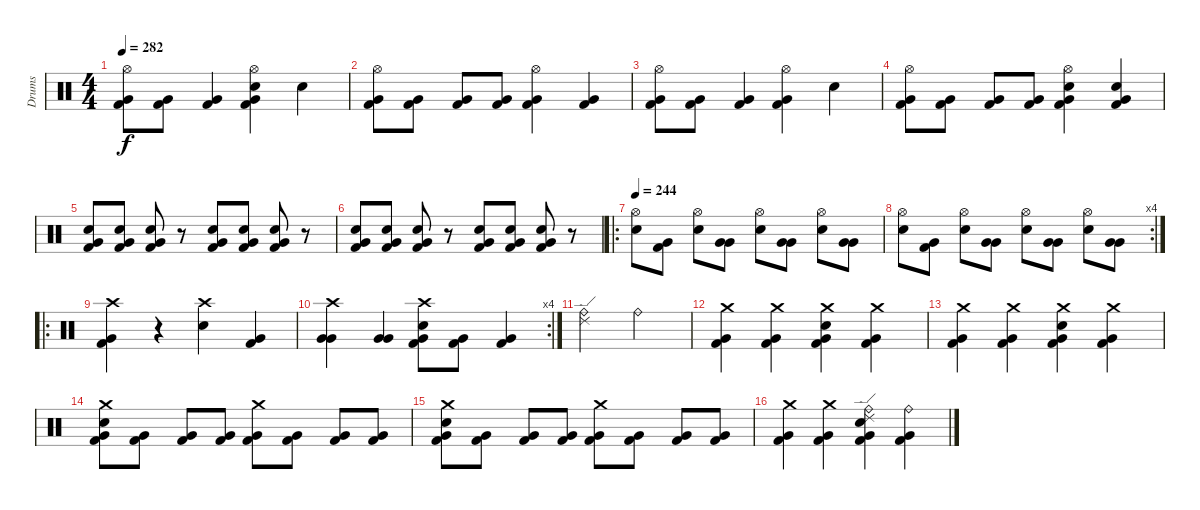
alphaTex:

\track ("Drums" "Drums") {instrument percussion}
\staff {score}
\articulation defaults
\ts (4 4)
\tempo 282
\clef neutral
\ks c
("Hi-Hat (open)" "Very Low Tom (hit)" "Kick (hit) 2").8{dy f} ("Very Low Tom (hit)" "Kick (hit) 2").8 ("Very Low Tom (hit)" "Kick (hit) 2").4 ("Hi-Hat (open)" "Snare (hit) 2" "Very Low Tom (hit)" "Kick (hit) 2").4 "Snare (hit) 2".4 |
("Hi-Hat (open)" "Very Low Tom (hit)" "Kick (hit) 2").8 ("Very Low Tom (hit)" "Kick (hit) 2").8 ("Very Low Tom (hit)" "Kick (hit) 2").8 ("Very Low Tom (hit)" "Kick (hit) 2").8 ("Hi-Hat (open)" "Very Low Tom (hit)" "Kick (hit) 2").4 ("Very Low Tom (hit)" "Kick (hit) 2").4 |
("Hi-Hat (open)" "Very Low Tom (hit)" "Kick (hit) 2").8 ("Very Low Tom (hit)" "Kick (hit) 2").8 ("Very Low Tom (hit)" "Kick (hit) 2").4 ("Hi-Hat (open)" "Very Low Tom (hit)" "Kick (hit) 2").4 "Snare (hit) 2".4 |
("Hi-Hat (open)" "Very Low Tom (hit)" "Kick (hit) 2").8 ("Very Low Tom (hit)" "Kick (hit) 2").8 ("Very Low Tom (hit)" "Kick (hit) 2").8 ("Very Low Tom (hit)" "Kick (hit) 2").8 ("Hi-Hat (open)" "Snare (hit) 2" "Very Low Tom (hit)" "Kick (hit) 2").4 ("Snare (hit) 2" "Very Low Tom (hit)" "Kick (hit) 2").4 |
("Snare (hit) 2" "Very Low Tom (hit)" "Kick (hit) 2").8 ("Snare (hit) 2" "Very Low Tom (hit)" "Kick (hit) 2").8 ("Snare (hit) 2" "Very Low Tom (hit)" "Kick (hit) 2").8 r.8 ("Snare (hit) 2" "Very Low Tom (hit)" "Kick (hit) 2").8 ("Snare (hit) 2" "Very Low Tom (hit)" "Kick (hit) 2").8 ("Snare (hit) 2" "Very Low Tom (hit)" "Kick (hit) 2").8 r.8 |
("Snare (hit) 2" "Very Low Tom (hit)" "Kick (hit) 2").8 ("Snare (hit) 2" "Very Low Tom (hit)" "Kick (hit) 2").8 ("Snare (hit) 2" "Very Low Tom (hit)" "Kick (hit) 2").8 r.8 ("Snare (hit) 2" "Very Low Tom (hit)" "Kick (hit) 2").8 ("Snare (hit) 2" "Very Low Tom (hit)" "Kick (hit) 2").8 ("Snare (hit) 2" "Very Low Tom (hit)" "Kick (hit) 2").8 r.8 |
\ro
\tempo 244
("Hi-Hat (open)" "Snare (hit) 2").8 ("Very Low Tom (hit)" "Kick (hit) 2").8 ("Hi-Hat (open)" "Snare (hit) 2").8 ("Very Low Tom (hit)" "Very Low Tom (hit)").8 ("Hi-Hat (open)" "Snare (hit) 2").8 ("Very Low Tom (hit)" "Very Low Tom (hit)").8 ("Hi-Hat (open)" "Snare (hit) 2").8 ("Very Low Tom (hit)" "Very Low Tom (hit)").8 |
\rc 4
("Hi-Hat (open)" "Snare (hit) 2").8 ("Very Low Tom (hit)" "Kick (hit) 2").8 ("Hi-Hat (open)" "Snare (hit) 2").8 ("Very Low Tom (hit)" "Very Low Tom (hit)").8 ("Hi-Hat (open)" "Snare (hit) 2").8 ("Very Low Tom (hit)" "Very Low Tom (hit)").8 ("Hi-Hat (open)" "Snare (hit) 2").8 ("Very Low Tom (hit)" "Very Low Tom (hit)").8 |
\ro
("Crash high (hit)" "Very Low Tom (hit)" "Kick (hit) 2").4 r.4 ("Crash high (hit)" "Snare (hit) 2").4 ("Very Low Tom (hit)" "Kick (hit) 2").4 |
\rc 4
("Crash high (hit)" "Very Low Tom (hit)" "Very Low Tom (hit)").4 ("Very Low Tom (hit)" "Very Low Tom (hit)").4 ("Crash high (hit)" "Snare (hit) 2" "Very Low Tom (hit)" "Kick (hit) 2").8 ("Very Low Tom (hit)" "Kick (hit) 2").8 ("Very Low Tom (hit)" "Kick (hit) 2").4 |
("Ride (bell)" "Ride (edge) 2").2 "Ride (bell)".2 |
("Crash medium (hit)" "Very Low Tom (hit)" "Kick (hit) 2").4 ("Crash medium (hit)" "Very Low Tom (hit)" "Kick (hit) 2").4 ("Crash medium (hit)" "Snare (hit) 2" "Very Low Tom (hit)" "Kick (hit) 2").4 ("Crash medium (hit)" "Very Low Tom (hit)" "Kick (hit) 2").4 |
("Crash medium (hit)" "Very Low Tom (hit)" "Kick (hit) 2").4 ("Crash medium (hit)" "Very Low Tom (hit)" "Kick (hit) 2").4 ("Crash medium (hit)" "Snare (hit) 2" "Very Low Tom (hit)" "Kick (hit) 2").4 ("Crash medium (hit)" "Very Low Tom (hit)" "Kick (hit) 2").4 |
("Crash medium (hit)" "Snare (hit) 2" "Very Low Tom (hit)" "Kick (hit) 2").8 ("Very Low Tom (hit)" "Kick (hit) 2").8 ("Very Low Tom (hit)" "Kick (hit) 2").8 ("Very Low Tom (hit)" "Kick (hit) 2").8 ("Crash medium (hit)" "Very Low Tom (hit)" "Kick (hit) 2").8 ("Very Low Tom (hit)" "Kick (hit) 2").8 ("Very Low Tom (hit)" "Kick (hit) 2").8 ("Very Low Tom (hit)" "Kick (hit) 2").8 |
("Crash medium (hit)" "Snare (hit) 2" "Very Low Tom (hit)" "Kick (hit) 2").8 ("Very Low Tom (hit)" "Kick (hit) 2").8 ("Very Low Tom (hit)" "Kick (hit) 2").8 ("Very Low Tom (hit)" "Kick (hit) 2").8 ("Crash medium (hit)" "Very Low Tom (hit)" "Kick (hit) 2").8 ("Very Low Tom (hit)" "Kick (hit) 2").8 ("Very Low Tom (hit)" "Kick (hit) 2").8 ("Very Low Tom (hit)" "Kick (hit) 2").8 |
("Crash medium (hit)" "Very Low Tom (hit)" "Kick (hit) 2").4 ("Crash medium (hit)" "Very Low Tom (hit)" "Kick (hit) 2").4 ("Ride (bell)" "Ride (edge) 2" "Snare (hit) 2" "Very Low Tom (hit)" "Kick (hit) 2").4 ("Ride (bell)" "Very Low Tom (hit)" "Kick (hit) 2").4
